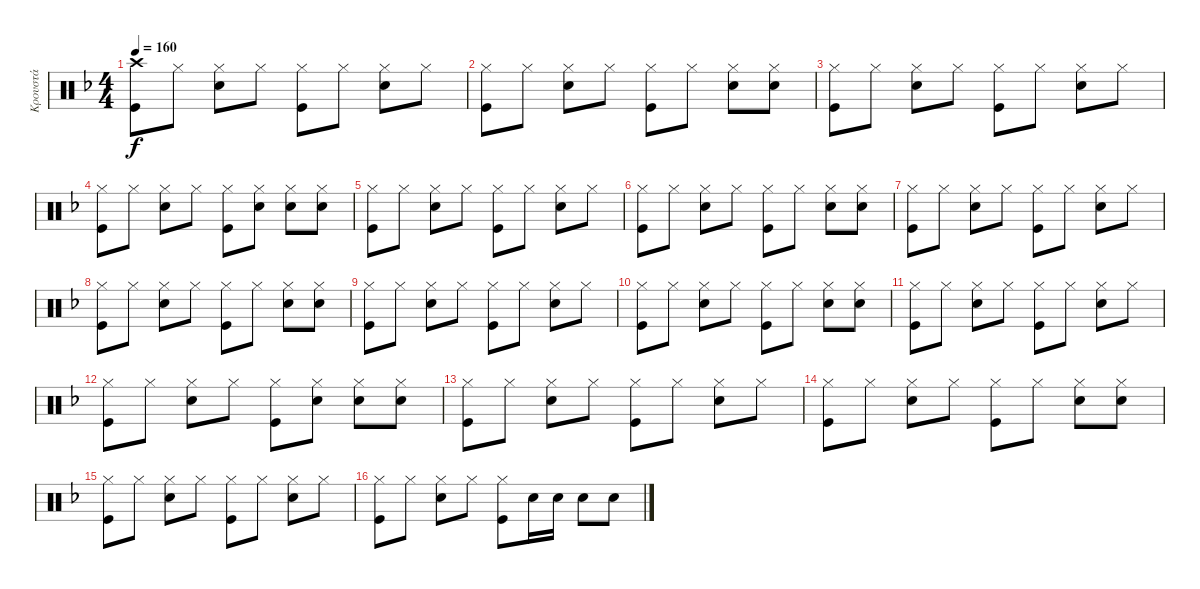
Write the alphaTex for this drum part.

\track ("Κρουστά" "Κρουστά") {instrument percussion}
\staff {score}
\articulation defaults
\ts (4 4)
\tempo 160
\clef neutral
\ks dminor
("Kick (hit)" "Crash high (hit)").8{dy f} "Hi-Hat (closed)".8 ("Hi-Hat (closed)" "Snare (hit) 2").8 "Hi-Hat (closed)".8 ("Hi-Hat (closed)" "Kick (hit)").8 "Hi-Hat (closed)".8 ("Hi-Hat (closed)" "Snare (hit) 2").8 "Hi-Hat (closed)".8 |
("Hi-Hat (closed)" "Kick (hit)").8 "Hi-Hat (closed)".8 ("Hi-Hat (closed)" "Snare (hit) 2").8 "Hi-Hat (closed)".8 ("Hi-Hat (closed)" "Kick (hit)").8 "Hi-Hat (closed)".8 ("Hi-Hat (closed)" "Snare (hit) 2").8 ("Hi-Hat (closed)" "Snare (hit) 2").8 |
("Hi-Hat (closed)" "Kick (hit)").8 "Hi-Hat (closed)".8 ("Hi-Hat (closed)" "Snare (hit) 2").8 "Hi-Hat (closed)".8 ("Hi-Hat (closed)" "Kick (hit)").8 "Hi-Hat (closed)".8 ("Hi-Hat (closed)" "Snare (hit) 2").8 "Hi-Hat (closed)".8 |
("Hi-Hat (closed)" "Kick (hit)").8 "Hi-Hat (closed)".8 ("Hi-Hat (closed)" "Snare (hit) 2").8 "Hi-Hat (closed)".8 ("Hi-Hat (closed)" "Kick (hit)").8 ("Hi-Hat (closed)" "Snare (hit) 2").8 ("Hi-Hat (closed)" "Snare (hit) 2").8 ("Hi-Hat (closed)" "Snare (hit) 2").8 |
("Hi-Hat (closed)" "Kick (hit)").8 "Hi-Hat (closed)".8 ("Hi-Hat (closed)" "Snare (hit) 2").8 "Hi-Hat (closed)".8 ("Hi-Hat (closed)" "Kick (hit)").8 "Hi-Hat (closed)".8 ("Hi-Hat (closed)" "Snare (hit) 2").8 "Hi-Hat (closed)".8 |
("Hi-Hat (closed)" "Kick (hit)").8 "Hi-Hat (closed)".8 ("Hi-Hat (closed)" "Snare (hit) 2").8 "Hi-Hat (closed)".8 ("Hi-Hat (closed)" "Kick (hit)").8 "Hi-Hat (closed)".8 ("Hi-Hat (closed)" "Snare (hit) 2").8 ("Hi-Hat (closed)" "Snare (hit) 2").8 |
("Hi-Hat (closed)" "Kick (hit)").8 "Hi-Hat (closed)".8 ("Hi-Hat (closed)" "Snare (hit) 2").8 "Hi-Hat (closed)".8 ("Hi-Hat (closed)" "Kick (hit)").8 "Hi-Hat (closed)".8 ("Hi-Hat (closed)" "Snare (hit) 2").8 "Hi-Hat (closed)".8 |
("Hi-Hat (closed)" "Kick (hit)").8 "Hi-Hat (closed)".8 ("Hi-Hat (closed)" "Snare (hit) 2").8 "Hi-Hat (closed)".8 ("Hi-Hat (closed)" "Kick (hit)").8 "Hi-Hat (closed)".8 ("Hi-Hat (closed)" "Snare (hit) 2").8 ("Hi-Hat (closed)" "Snare (hit) 2").8 |
("Hi-Hat (closed)" "Kick (hit)").8 "Hi-Hat (closed)".8 ("Hi-Hat (closed)" "Snare (hit) 2").8 "Hi-Hat (closed)".8 ("Hi-Hat (closed)" "Kick (hit)").8 "Hi-Hat (closed)".8 ("Hi-Hat (closed)" "Snare (hit) 2").8 "Hi-Hat (closed)".8 |
("Hi-Hat (closed)" "Kick (hit)").8 "Hi-Hat (closed)".8 ("Hi-Hat (closed)" "Snare (hit) 2").8 "Hi-Hat (closed)".8 ("Hi-Hat (closed)" "Kick (hit)").8 "Hi-Hat (closed)".8 ("Hi-Hat (closed)" "Snare (hit) 2").8 ("Hi-Hat (closed)" "Snare (hit) 2").8 |
("Hi-Hat (closed)" "Kick (hit)").8 "Hi-Hat (closed)".8 ("Hi-Hat (closed)" "Snare (hit) 2").8 "Hi-Hat (closed)".8 ("Hi-Hat (closed)" "Kick (hit)").8 "Hi-Hat (closed)".8 ("Hi-Hat (closed)" "Snare (hit) 2").8 "Hi-Hat (closed)".8 |
("Hi-Hat (closed)" "Kick (hit)").8 "Hi-Hat (closed)".8 ("Hi-Hat (closed)" "Snare (hit) 2").8 "Hi-Hat (closed)".8 ("Hi-Hat (closed)" "Kick (hit)").8 ("Hi-Hat (closed)" "Snare (hit) 2").8 ("Hi-Hat (closed)" "Snare (hit) 2").8 ("Hi-Hat (closed)" "Snare (hit) 2").8 |
("Hi-Hat (closed)" "Kick (hit)").8 "Hi-Hat (closed)".8 ("Hi-Hat (closed)" "Snare (hit) 2").8 "Hi-Hat (closed)".8 ("Hi-Hat (closed)" "Kick (hit)").8 "Hi-Hat (closed)".8 ("Hi-Hat (closed)" "Snare (hit) 2").8 "Hi-Hat (closed)".8 |
("Hi-Hat (closed)" "Kick (hit)").8 "Hi-Hat (closed)".8 ("Hi-Hat (closed)" "Snare (hit) 2").8 "Hi-Hat (closed)".8 ("Hi-Hat (closed)" "Kick (hit)").8 "Hi-Hat (closed)".8 ("Hi-Hat (closed)" "Snare (hit) 2").8 ("Hi-Hat (closed)" "Snare (hit) 2").8 |
("Hi-Hat (closed)" "Kick (hit)").8 "Hi-Hat (closed)".8 ("Hi-Hat (closed)" "Snare (hit) 2").8 "Hi-Hat (closed)".8 ("Hi-Hat (closed)" "Kick (hit)").8 "Hi-Hat (closed)".8 ("Hi-Hat (closed)" "Snare (hit) 2").8 "Hi-Hat (closed)".8 |
("Hi-Hat (closed)" "Kick (hit)").8 "Hi-Hat (closed)".8 ("Hi-Hat (closed)" "Snare (hit) 2").8 "Hi-Hat (closed)".8 ("Hi-Hat (closed)" "Kick (hit)").8 "Snare (hit) 2".16 "Snare (hit) 2".16 "Snare (hit) 2".8 "Snare (hit) 2".8
